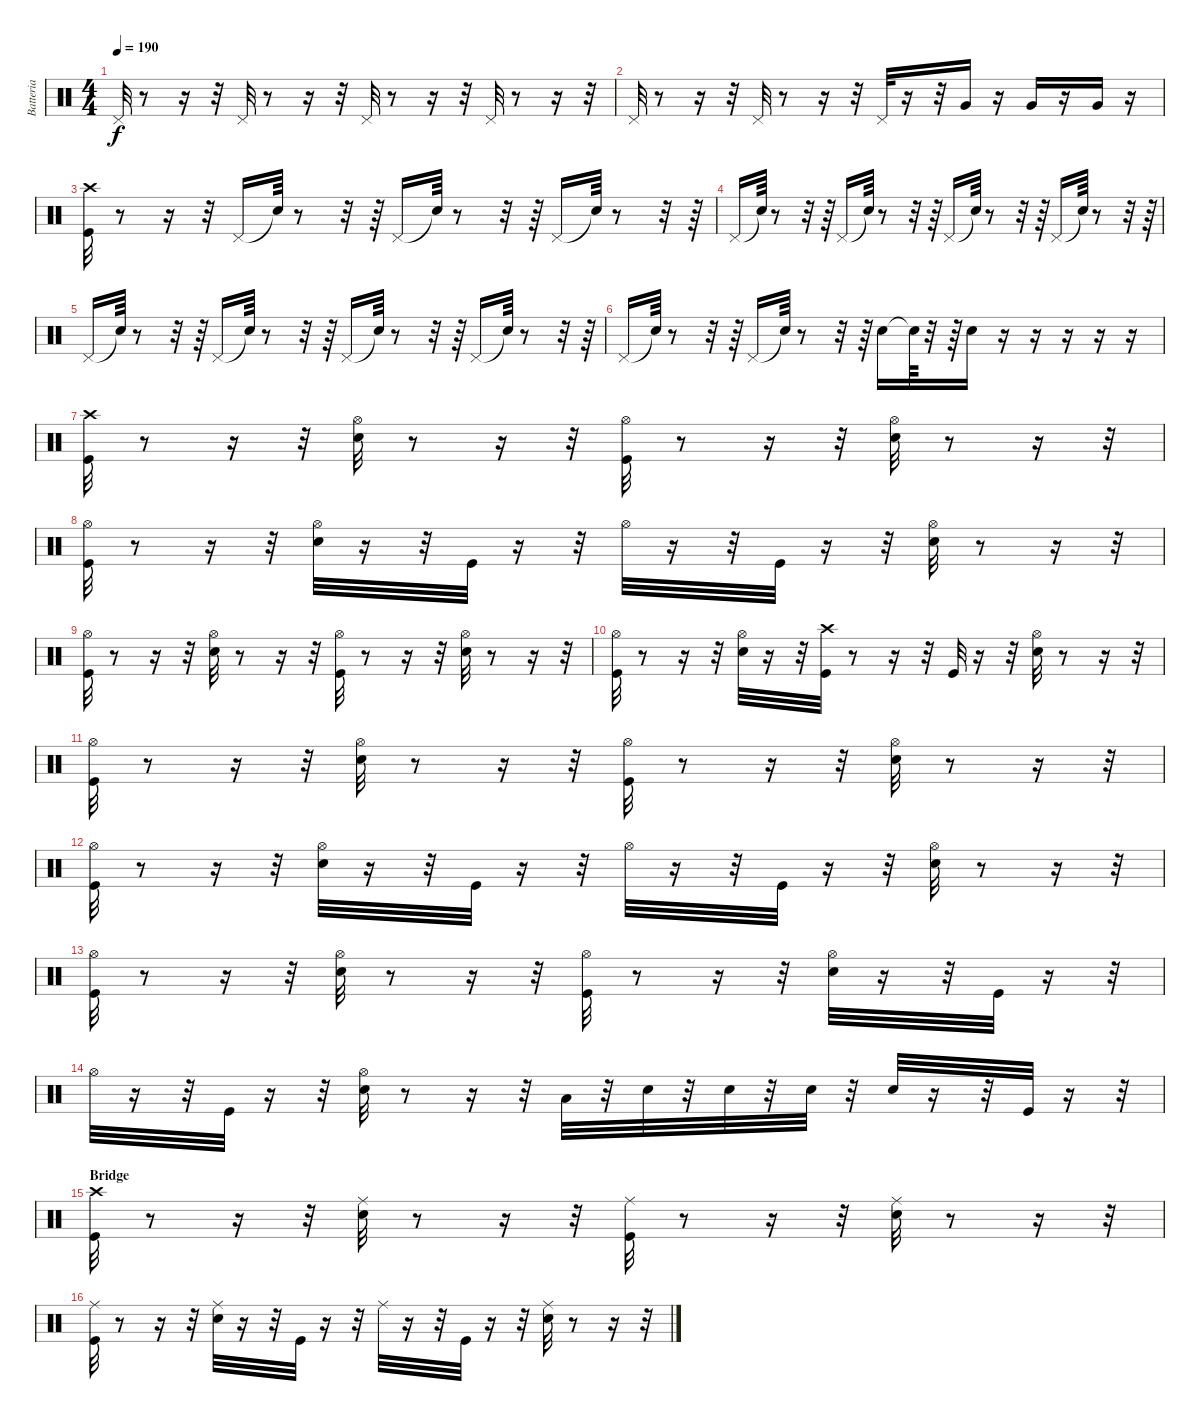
\track ("Batteria" "Batteria") {instrument percussion}
\staff {score}
\articulation defaults
\ts (4 4)
\tempo 190
\clef neutral
\ks c "Pedal Hi-Hat (hit)".32{dy f}
r.8 r.16 r.32 "Pedal Hi-Hat (hit)".32 r.8 r.16 r.32 "Pedal Hi-Hat (hit)".32 r.8 r.16 r.32 "Pedal Hi-Hat (hit)".32 r.8 r.16 r.32 |
"Pedal Hi-Hat (hit)".32 r.8 r.16 r.32 "Pedal Hi-Hat (hit)".32 r.8 r.16 r.32 "Pedal Hi-Hat (hit)".32 r.16 r.32 "Very Low Tom (hit)".16 r.16 "Very Low Tom (hit)".16 r.16 "Very Low Tom (hit)".16 r.16 |
("Kick (hit)" "Crash high (hit)").32 r.8 r.16 r.32 "Pedal Hi-Hat (hit)".16 "Snare (hit)"{t}.64 r.8 r.32 r.64 "Pedal Hi-Hat (hit)".16 "Snare (hit)"{t}.64 r.8 r.32 r.64 "Pedal Hi-Hat (hit)".16 "Snare (hit)"{t}.64 r.8 r.32 r.64 |
"Pedal Hi-Hat (hit)".16 "Snare (hit)"{t}.64 r.8 r.32 r.64 "Pedal Hi-Hat (hit)".16 "Snare (hit)"{t}.64 r.8 r.32 r.64 "Pedal Hi-Hat (hit)".16 "Snare (hit)"{t}.64 r.8 r.32 r.64 "Pedal Hi-Hat (hit)".16 "Snare (hit)"{t}.64 r.8 r.32 r.64 |
"Pedal Hi-Hat (hit)".16 "Snare (hit)"{t}.64 r.8 r.32 r.64 "Pedal Hi-Hat (hit)".16 "Snare (hit)"{t}.64 r.8 r.32 r.64 "Pedal Hi-Hat (hit)".16 "Snare (hit)"{t}.64 r.8 r.32 r.64 "Pedal Hi-Hat (hit)".16 "Snare (hit)"{t}.64 r.8 r.32 r.64 |
"Pedal Hi-Hat (hit)".16 "Snare (hit)"{t}.64 r.8 r.32 r.64 "Pedal Hi-Hat (hit)".16 "Snare (hit)"{t}.64 r.8 r.32 r.64 "Snare (hit) 2".16 "Snare (hit)"{t}.64 r.32 r.64 "Snare (hit) 2".16 r.16 r.16 r.16 r.16 r.16 |
("Kick (hit)" "Crash high (hit)").32 r.8 r.16 r.32 ("Hi-Hat (open)" "Snare (hit) 2").32 r.8 r.16 r.32 ("Hi-Hat (open)" "Kick (hit)").32 r.8 r.16 r.32 ("Snare (hit) 2" "Hi-Hat (open)").32 r.8 r.16 r.32 |
("Hi-Hat (open)" "Kick (hit)").32 r.8 r.16 r.32 ("Hi-Hat (open)" "Snare (hit) 2").32 r.16 r.32 "Kick (hit)".32 r.16 r.32 "Hi-Hat (open)".32 r.16 r.32 "Kick (hit)".32 r.16 r.32 ("Hi-Hat (open)" "Snare (hit) 2").32 r.8 r.16 r.32 |
("Hi-Hat (open)" "Kick (hit)").32 r.8 r.16 r.32 ("Snare (hit) 2" "Hi-Hat (open)").32 r.8 r.16 r.32 ("Kick (hit)" "Hi-Hat (open)").32 r.8 r.16 r.32 ("Hi-Hat (open)" "Snare (hit) 2").32 r.8 r.16 r.32 |
("Hi-Hat (open)" "Kick (hit)").32 r.8 r.16 r.32 ("Hi-Hat (open)" "Snare (hit) 2").32 r.16 r.32 ("Crash high (hit)" "Kick (hit)").32 r.8 r.16 r.32 "Kick (hit)".32 r.16 r.32 ("Hi-Hat (open)" "Snare (hit) 2").32 r.8 r.16 r.32 |
("Hi-Hat (open)" "Kick (hit)").32 r.8 r.16 r.32 ("Snare (hit) 2" "Hi-Hat (open)").32 r.8 r.16 r.32 ("Kick (hit)" "Hi-Hat (open)").32 r.8 r.16 r.32 ("Snare (hit) 2" "Hi-Hat (open)").32 r.8 r.16 r.32 |
("Kick (hit)" "Hi-Hat (open)").32 r.8 r.16 r.32 ("Hi-Hat (open)" "Snare (hit) 2").32 r.16 r.32 "Kick (hit)".32 r.16 r.32 "Hi-Hat (open)".32 r.16 r.32 "Kick (hit)".32 r.16 r.32 ("Snare (hit) 2" "Hi-Hat (open)").32 r.8 r.16 r.32 |
("Hi-Hat (open)" "Kick (hit)").32 r.8 r.16 r.32 ("Hi-Hat (open)" "Snare (hit) 2").32 r.8 r.16 r.32 ("Kick (hit)" "Hi-Hat (open)").32 r.8 r.16 r.32 ("Snare (hit) 2" "Hi-Hat (open)").32 r.16 r.32 "Kick (hit)".32 r.16 r.32 |
"Hi-Hat (open)".32 r.16 r.32 "Kick (hit)".32 r.16 r.32 ("Snare (hit) 2" "Hi-Hat (open)").32 r.8 r.16 r.32 "Low Tom (hit)".32 r.32 "Snare (hit) 2".32 r.32 "Snare (hit) 2".32 r.32 "Snare (hit) 2".32 r.32 "Snare (hit) 2".32 r.16 r.32 "Kick (hit)".32 r.16 r.32 |
\section ("" "Bridge")
("Crash high (hit)" "Kick (hit)").32 r.8 r.16 r.32 ("Snare (hit) 2" "Ride (middle)").32 r.8 r.16 r.32 ("Kick (hit)" "Ride (middle)").32 r.8 r.16 r.32 ("Ride (middle)" "Snare (hit) 2").32 r.8 r.16 r.32 |
("Ride (middle)" "Kick (hit)").32 r.8 r.16 r.32 ("Snare (hit) 2" "Ride (middle)").32 r.16 r.32 "Kick (hit)".32 r.16 r.32 "Ride (middle)".32 r.16 r.32 "Kick (hit)".32 r.16 r.32 ("Ride (middle)" "Snare (hit) 2").32 r.8 r.16 r.32
